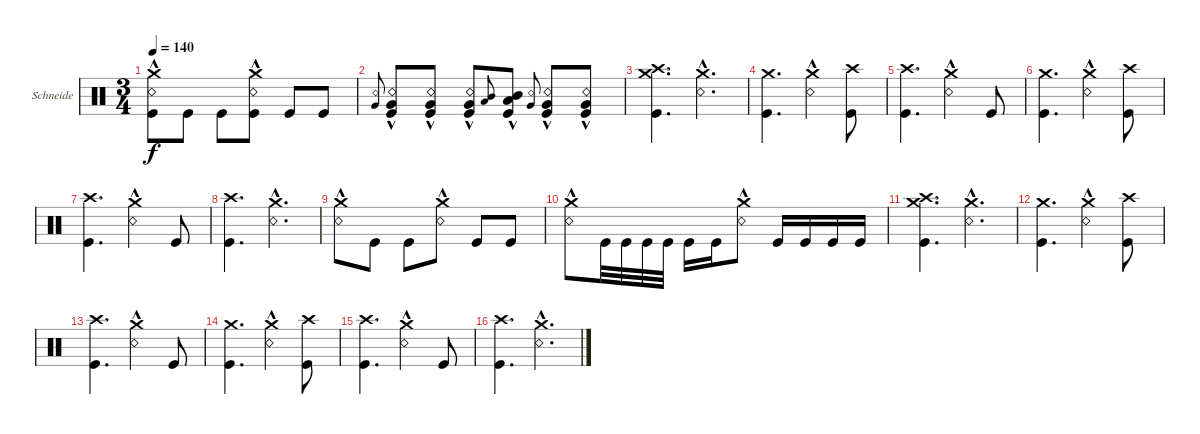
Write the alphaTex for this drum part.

\bracketExtendMode groupsimilarinstruments
\firstSystemTrackNameOrientation horizontal
\otherSystemsTrackNameOrientation horizontal
\track ("Christoph \"Doom\" Schneider" "Schneide") {instrument percussion}
\staff {score}
\articulation defaults
\ts (3 4)
\tempo 140
\clef neutral
\ks c
("Crash medium (hit)" "Kick (hit)" "Snare (rim shot)"{hac}).8{dy f} "Kick (hit)".8 "Kick (hit)".8 ("Crash medium (hit)" "Kick (hit)" "Snare (rim shot)"{hac}).8 "Kick (hit)".8 "Kick (hit)".8 |
("Snare (rim shot)" "Very Low Tom (hit)").8{gr onbeat} ("Kick (hit)" "Snare (rim shot)"{hac} "Very Low Tom (hit)"{hac}).8 ("Kick (hit)" "Snare (rim shot)"{hac} "Very Low Tom (hit)"{hac}).8 ("Kick (hit)" "Snare (rim shot)"{hac} "Very Low Tom (hit)"{hac}).8 ("Mid Tom (hit)" "Low Tom (hit)").8{gr onbeat} ("Kick (hit)" "Mid Tom (hit)"{hac} "Low Tom (hit)"{hac}).8 ("Snare (rim shot)" "Very Low Tom (hit)").8{gr onbeat} ("Kick (hit)" "Snare (rim shot)"{hac} "Very Low Tom (hit)"{hac}).8 ("Kick (hit)" "Snare (rim shot)"{hac} "Very Low Tom (hit)"{hac}).8 |
("Crash medium (hit)" "Kick (hit)" "Crash high (hit)").4{d} ("Crash medium (hit)" "Snare (rim shot)"{hac}).4{d} |
("Crash medium (hit)" "Kick (hit)").4{d} ("Crash medium (hit)" "Snare (rim shot)"{hac}).4 ("Crash high (hit)" "Kick (hit)").8 |
("Kick (hit)" "Crash high (hit)").4{d} ("Crash medium (hit)" "Snare (rim shot)"{hac}).4 "Kick (hit)".8 |
("Crash medium (hit)" "Kick (hit)").4{d} ("Crash medium (hit)" "Snare (rim shot)"{hac}).4 ("Crash high (hit)" "Kick (hit)").8 |
("Kick (hit)" "Crash high (hit)").4{d} ("Crash medium (hit)" "Snare (rim shot)"{hac}).4 "Kick (hit)".8 |
("Kick (hit)" "Crash high (hit)").4{d} ("Crash medium (hit)" "Snare (rim shot)"{hac}).4{d} |
("Crash medium (hit)" "Snare (rim shot)"{hac}).8 "Kick (hit)".8 "Kick (hit)".8 ("Crash medium (hit)" "Snare (rim shot)"{hac}).8 "Kick (hit)".8 "Kick (hit)".8 |
("Crash medium (hit)" "Snare (rim shot)"{hac}).8 "Kick (hit)".32 "Kick (hit)".32 "Kick (hit)".32 "Kick (hit)".32 "Kick (hit)".16 "Kick (hit)".16 ("Crash medium (hit)" "Snare (rim shot)"{hac}).8 "Kick (hit)".16 "Kick (hit)".16 "Kick (hit)".16 "Kick (hit)".16 |
("Crash medium (hit)" "Kick (hit)" "Crash high (hit)").4{d} ("Crash medium (hit)" "Snare (rim shot)"{hac}).4{d} |
("Crash medium (hit)" "Kick (hit)").4{d} ("Crash medium (hit)" "Snare (rim shot)"{hac}).4 ("Crash high (hit)" "Kick (hit)").8 |
("Kick (hit)" "Crash high (hit)").4{d} ("Crash medium (hit)" "Snare (rim shot)"{hac}).4 "Kick (hit)".8 |
("Crash medium (hit)" "Kick (hit)").4{d} ("Crash medium (hit)" "Snare (rim shot)"{hac}).4 ("Crash high (hit)" "Kick (hit)").8 |
("Kick (hit)" "Crash high (hit)").4{d} ("Crash medium (hit)" "Snare (rim shot)"{hac}).4 "Kick (hit)".8 |
("Kick (hit)" "Crash high (hit)").4{d} ("Crash medium (hit)" "Snare (rim shot)"{hac}).4{d}
